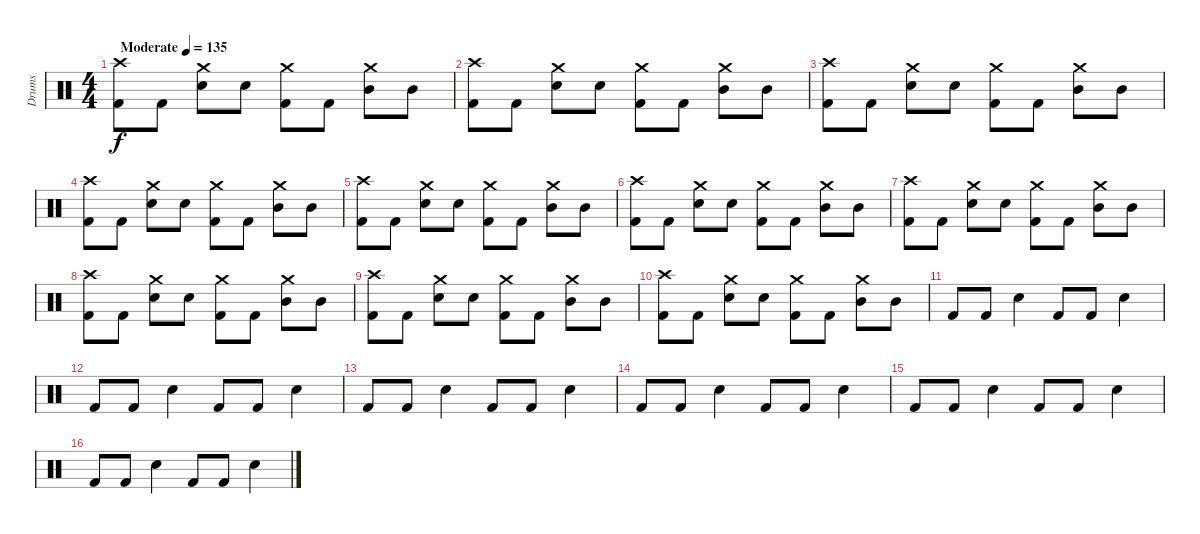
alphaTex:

\track ("Drums" "Drums") {instrument percussion}
\staff {score}
\articulation defaults
\ts (4 4)
\tempo (135 "Moderate")
\clef neutral
\ks c
("Kick (hit) 2" "Crash high (hit)").8{dy f} "Kick (hit) 2".8 ("Snare (hit) 2" "Crash medium (hit)").8 "Snare (hit) 2".8 ("Kick (hit) 2" "Crash medium (hit)").8 "Kick (hit) 2".8 ("Mid Tom (hit)" "Crash medium (hit)").8 "Mid Tom (hit)".8 |
("Kick (hit) 2" "Crash high (hit)").8 "Kick (hit) 2".8 ("Snare (hit) 2" "Crash medium (hit)").8 "Snare (hit) 2".8 ("Kick (hit) 2" "Crash medium (hit)").8 "Kick (hit) 2".8 ("Mid Tom (hit)" "Crash medium (hit)").8 "Mid Tom (hit)".8 |
("Kick (hit) 2" "Crash high (hit)").8 "Kick (hit) 2".8 ("Snare (hit) 2" "Crash medium (hit)").8 "Snare (hit) 2".8 ("Kick (hit) 2" "Crash medium (hit)").8 "Kick (hit) 2".8 ("Mid Tom (hit)" "Crash medium (hit)").8 "Mid Tom (hit)".8 |
("Kick (hit) 2" "Crash high (hit)").8 "Kick (hit) 2".8 ("Snare (hit) 2" "Crash medium (hit)").8 "Snare (hit) 2".8 ("Kick (hit) 2" "Crash medium (hit)").8 "Kick (hit) 2".8 ("Mid Tom (hit)" "Crash medium (hit)").8 "Mid Tom (hit)".8 |
("Kick (hit) 2" "Crash high (hit)").8 "Kick (hit) 2".8 ("Snare (hit) 2" "Crash medium (hit)").8 "Snare (hit) 2".8 ("Kick (hit) 2" "Crash medium (hit)").8 "Kick (hit) 2".8 ("Mid Tom (hit)" "Crash medium (hit)").8 "Mid Tom (hit)".8 |
("Kick (hit) 2" "Crash high (hit)").8 "Kick (hit) 2".8 ("Snare (hit) 2" "Crash medium (hit)").8 "Snare (hit) 2".8 ("Kick (hit) 2" "Crash medium (hit)").8 "Kick (hit) 2".8 ("Mid Tom (hit)" "Crash medium (hit)").8 "Mid Tom (hit)".8 |
("Kick (hit) 2" "Crash high (hit)").8 "Kick (hit) 2".8 ("Snare (hit) 2" "Crash medium (hit)").8 "Snare (hit) 2".8 ("Kick (hit) 2" "Crash medium (hit)").8 "Kick (hit) 2".8 ("Mid Tom (hit)" "Crash medium (hit)").8 "Mid Tom (hit)".8 |
("Kick (hit) 2" "Crash high (hit)").8 "Kick (hit) 2".8 ("Snare (hit) 2" "Crash medium (hit)").8 "Snare (hit) 2".8 ("Kick (hit) 2" "Crash medium (hit)").8 "Kick (hit) 2".8 ("Mid Tom (hit)" "Crash medium (hit)").8 "Mid Tom (hit)".8 |
("Kick (hit) 2" "Crash high (hit)").8 "Kick (hit) 2".8 ("Snare (hit) 2" "Crash medium (hit)").8 "Snare (hit) 2".8 ("Kick (hit) 2" "Crash medium (hit)").8 "Kick (hit) 2".8 ("Mid Tom (hit)" "Crash medium (hit)").8 "Mid Tom (hit)".8 |
("Kick (hit) 2" "Crash high (hit)").8 "Kick (hit) 2".8 ("Snare (hit) 2" "Crash medium (hit)").8 "Snare (hit) 2".8 ("Kick (hit) 2" "Crash medium (hit)").8 "Kick (hit) 2".8 ("Mid Tom (hit)" "Crash medium (hit)").8 "Mid Tom (hit)".8 |
"Kick (hit) 2".8 "Kick (hit) 2".8 "Snare (hit) 2".4 "Kick (hit) 2".8 "Kick (hit) 2".8 "Snare (hit) 2".4 |
"Kick (hit) 2".8 "Kick (hit) 2".8 "Snare (hit) 2".4 "Kick (hit) 2".8 "Kick (hit) 2".8 "Snare (hit) 2".4 |
"Kick (hit) 2".8 "Kick (hit) 2".8 "Snare (hit) 2".4 "Kick (hit) 2".8 "Kick (hit) 2".8 "Snare (hit) 2".4 |
"Kick (hit) 2".8 "Kick (hit) 2".8 "Snare (hit) 2".4 "Kick (hit) 2".8 "Kick (hit) 2".8 "Snare (hit) 2".4 |
"Kick (hit) 2".8 "Kick (hit) 2".8 "Snare (hit) 2".4 "Kick (hit) 2".8 "Kick (hit) 2".8 "Snare (hit) 2".4 |
"Kick (hit) 2".8 "Kick (hit) 2".8 "Snare (hit) 2".4 "Kick (hit) 2".8 "Kick (hit) 2".8 "Snare (hit) 2".4
